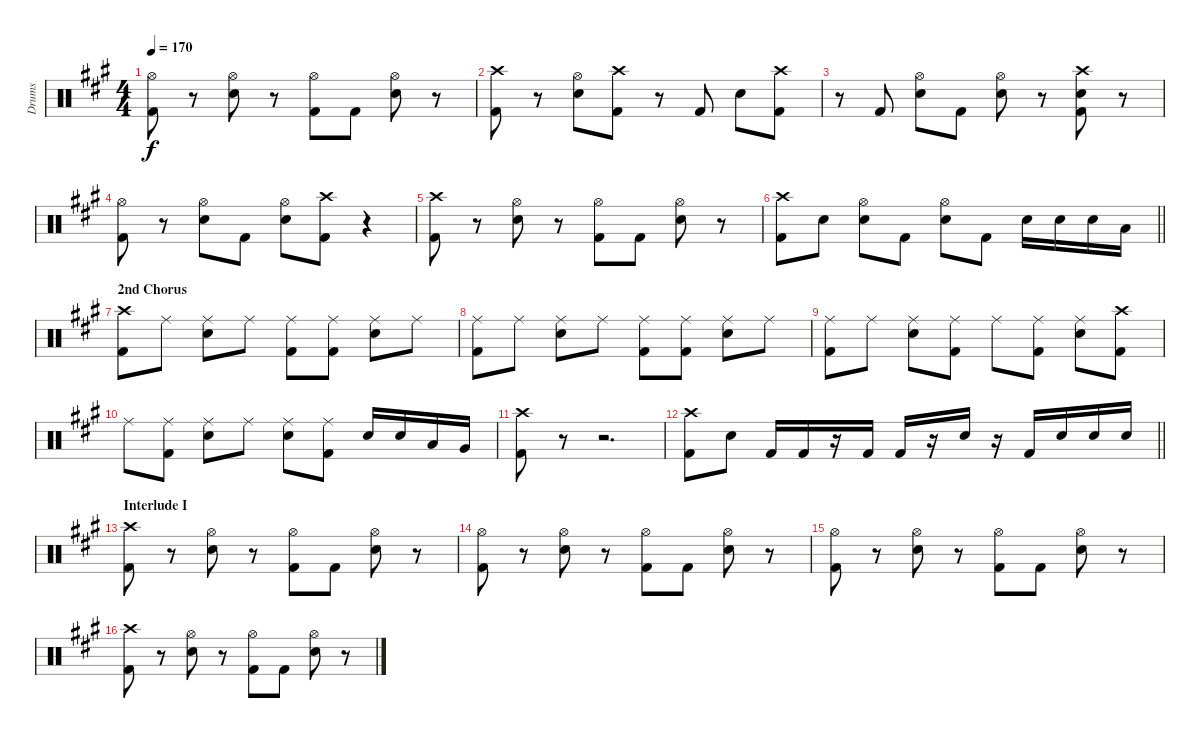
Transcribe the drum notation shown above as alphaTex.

\track ("Drums" "Drums") {instrument percussion}
\staff {score}
\articulation defaults
\ts (4 4)
\tempo 170
\clef neutral
\ks a
("Hi-Hat (open)" "Kick (hit) 2").8{dy f} r.8 ("Hi-Hat (open)" "Snare (hit) 2").8 r.8 ("Hi-Hat (open)" "Kick (hit) 2").8 "Kick (hit) 2".8 ("Hi-Hat (open)" "Snare (hit) 2").8 r.8 |
("Crash high (hit)" "Kick (hit) 2").8 r.8 ("Hi-Hat (open)" "Snare (hit) 2").8 ("Crash high (hit)" "Kick (hit) 2").8 r.8 "Kick (hit) 2".8 "Snare (hit) 2".8 ("Crash high (hit)" "Kick (hit) 2").8 |
r.8 "Kick (hit) 2".8 ("Hi-Hat (open)" "Snare (hit) 2").8 "Kick (hit) 2".8 ("Hi-Hat (open)" "Snare (hit) 2").8 r.8 ("Crash high (hit)" "Snare (hit) 2" "Kick (hit) 2").8 r.8 |
("Hi-Hat (open)" "Kick (hit) 2").8 r.8 ("Hi-Hat (open)" "Snare (hit) 2").8 "Kick (hit) 2".8 ("Hi-Hat (open)" "Snare (hit) 2").8 ("Crash high (hit)" "Kick (hit) 2").8 r.4 |
("Crash high (hit)" "Kick (hit) 2").8 r.8 ("Hi-Hat (open)" "Snare (hit) 2").8 r.8 ("Hi-Hat (open)" "Kick (hit) 2").8 "Kick (hit) 2".8 ("Hi-Hat (open)" "Snare (hit) 2").8 r.8 |
\barLineRight lightlight
("Crash high (hit)" "Kick (hit) 2").8 "Snare (hit) 2".8 ("Hi-Hat (open)" "Snare (hit) 2").8 "Kick (hit) 2".8 ("Hi-Hat (open)" "Snare (hit) 2").8 "Kick (hit) 2".8 "Snare (hit) 2".16 "Snare (hit) 2".16 "Snare (hit) 2".16 "Low Tom (hit)".16 |
\section ("" "2nd Chorus")
("Crash high (hit)" "Kick (hit) 2").8 "Ride (middle)".8 ("Ride (middle)" "Snare (hit) 2").8 "Ride (middle)".8 ("Ride (middle)" "Kick (hit) 2").8 ("Ride (middle)" "Kick (hit) 2").8 ("Ride (middle)" "Snare (hit) 2").8 "Ride (middle)".8 |
("Ride (middle)" "Kick (hit) 2").8 "Ride (middle)".8 ("Ride (middle)" "Snare (hit) 2").8 "Ride (middle)".8 ("Ride (middle)" "Kick (hit) 2").8 ("Ride (middle)" "Kick (hit) 2").8 ("Ride (middle)" "Snare (hit) 2").8 "Ride (middle)".8 |
("Ride (middle)" "Kick (hit) 2").8 "Ride (middle)".8 ("Ride (middle)" "Snare (hit) 2").8 ("Ride (middle)" "Kick (hit) 2").8 "Ride (middle)".8 ("Ride (middle)" "Kick (hit) 2").8 ("Ride (middle)" "Snare (hit) 2").8 ("Crash high (hit)" "Kick (hit) 2").8 |
"Ride (middle)".8 ("Ride (middle)" "Kick (hit) 2").8 ("Ride (middle)" "Snare (hit) 2").8 "Ride (middle)".8 ("Ride (middle)" "Snare (hit) 2").8 ("Ride (middle)" "Kick (hit) 2").8 "Snare (hit) 2".16 "Snare (hit) 2".16 "Low Tom (hit)".16 "Very Low Tom (hit)".16 |
("Crash high (hit)" "Kick (hit) 2").8 r.8 r.2{d} |
\barLineRight lightlight
("Crash high (hit)" "Kick (hit) 2").8 "Snare (hit) 2".8 "Kick (hit) 2".16 "Kick (hit) 2".16 r.16 "Kick (hit) 2".16 "Kick (hit) 2".16 r.16 "Snare (hit) 2".16 r.16 "Kick (hit) 2".16 "Snare (hit) 2".16 "Snare (hit) 2".16 "Snare (hit) 2".16 |
\section ("" "Interlude I")
("Crash high (hit)" "Kick (hit) 2").8 r.8 ("Hi-Hat (open)" "Snare (hit) 2").8 r.8 ("Hi-Hat (open)" "Kick (hit) 2").8 "Kick (hit) 2".8 ("Hi-Hat (open)" "Snare (hit) 2").8 r.8 |
("Hi-Hat (open)" "Kick (hit) 2").8 r.8 ("Hi-Hat (open)" "Snare (hit) 2").8 r.8 ("Hi-Hat (open)" "Kick (hit) 2").8 "Kick (hit) 2".8 ("Hi-Hat (open)" "Snare (hit) 2").8 r.8 |
("Hi-Hat (open)" "Kick (hit) 2").8 r.8 ("Hi-Hat (open)" "Snare (hit) 2").8 r.8 ("Hi-Hat (open)" "Kick (hit) 2").8 "Kick (hit) 2".8 ("Hi-Hat (open)" "Snare (hit) 2").8 r.8 |
("Crash high (hit)" "Kick (hit) 2").8 r.8 ("Hi-Hat (open)" "Snare (hit) 2").8 r.8 ("Hi-Hat (open)" "Kick (hit) 2").8 "Kick (hit) 2".8 ("Hi-Hat (open)" "Snare (hit) 2").8 r.8
